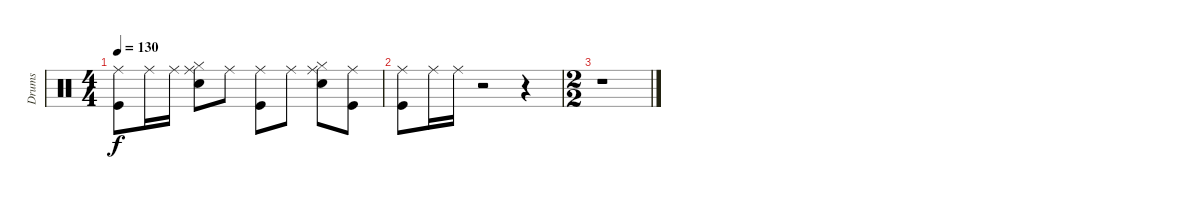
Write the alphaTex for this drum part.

\track ("Drums" "Drums") {instrument percussion}
\staff {score}
\articulation defaults
\ts (4 4)
\tempo 130
\clef neutral
\ks c
("Kick (hit)" "Ride (middle)").8{dy f} "Ride (middle)".16 "Ride (middle)".16 ("Snare (hit) 2" "Hi-Hat (closed)" "Ride (middle)").8 "Ride (middle)".8 ("Kick (hit)" "Ride (middle)").8 "Ride (middle)".8 ("Snare (hit) 2" "Hi-Hat (closed)" "Ride (middle)").8 ("Kick (hit)" "Ride (middle)").8 |
("Kick (hit)" "Ride (middle)").8 "Ride (middle)".16 "Ride (middle)".16 r.2 r.4 |
\ts (2 2)
r.1
